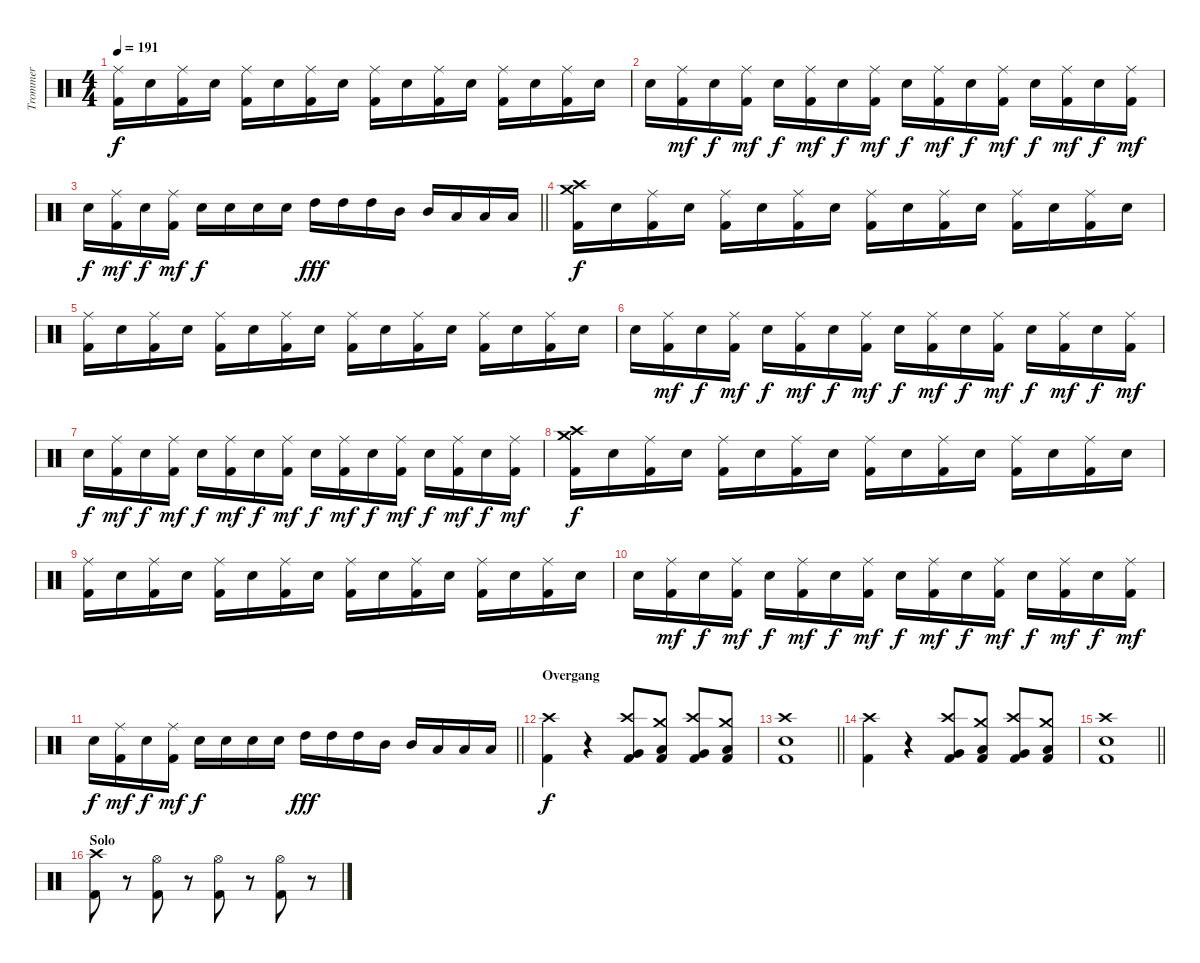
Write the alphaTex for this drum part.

\track ("Trommer" "Trommer") {instrument percussion}
\staff {score}
\articulation defaults
\ts (4 4)
\tempo 191
\clef neutral
\ks c
("Ride (middle)" "Kick (hit) 2").16{dy f} "Snare (hit) 2".16 ("Ride (middle)" "Kick (hit) 2").16 "Snare (hit) 2".16 ("Ride (middle)" "Kick (hit) 2").16 "Snare (hit) 2".16 ("Ride (middle)" "Kick (hit) 2").16 "Snare (hit) 2".16 ("Ride (middle)" "Kick (hit) 2").16 "Snare (hit) 2".16 ("Ride (middle)" "Kick (hit) 2").16 "Snare (hit) 2".16 ("Ride (middle)" "Kick (hit) 2").16 "Snare (hit) 2".16 ("Ride (middle)" "Kick (hit) 2").16 "Snare (hit) 2".16 |
"Snare (hit) 2".16 ("Ride (middle)" "Kick (hit) 2").16{dy mf} "Snare (hit) 2".16{dy f} ("Ride (middle)" "Kick (hit) 2").16{dy mf} "Snare (hit) 2".16{dy f} ("Ride (middle)" "Kick (hit) 2").16{dy mf} "Snare (hit) 2".16{dy f} ("Ride (middle)" "Kick (hit) 2").16{dy mf} "Snare (hit) 2".16{dy f} ("Ride (middle)" "Kick (hit) 2").16{dy mf} "Snare (hit) 2".16{dy f} ("Ride (middle)" "Kick (hit) 2").16{dy mf} "Snare (hit) 2".16{dy f} ("Ride (middle)" "Kick (hit) 2").16{dy mf} "Snare (hit) 2".16{dy f} ("Ride (middle)" "Kick (hit) 2").16{dy mf} |
\barLineRight lightlight "Snare (hit) 2".16{dy f}
("Ride (middle)" "Kick (hit) 2").16{dy mf} "Snare (hit) 2".16{dy f} ("Ride (middle)" "Kick (hit) 2").16{dy mf} "Snare (hit) 2".16{dy f} "Snare (hit) 2".16 "Snare (hit) 2".16 "Snare (hit) 2".16 "High Tom (hit)".16{dy fff} "High Tom (hit)".16 "High Tom (hit)".16 "Mid Tom (hit)".16 "Mid Tom (hit)".16 "Low Tom (hit)".16 "Low Tom (hit)".16 "Low Tom (hit)".16 |
("Crash medium (hit)" "Crash high (hit)" "Kick (hit) 2").16{dy f} "Snare (hit) 2".16 ("Ride (middle)" "Kick (hit) 2").16 "Snare (hit) 2".16 ("Ride (middle)" "Kick (hit) 2").16 "Snare (hit) 2".16 ("Ride (middle)" "Kick (hit) 2").16 "Snare (hit) 2".16 ("Ride (middle)" "Kick (hit) 2").16 "Snare (hit) 2".16 ("Ride (middle)" "Kick (hit) 2").16 "Snare (hit) 2".16 ("Ride (middle)" "Kick (hit) 2").16 "Snare (hit) 2".16 ("Ride (middle)" "Kick (hit) 2").16 "Snare (hit) 2".16 |
("Ride (middle)" "Kick (hit) 2").16 "Snare (hit) 2".16 ("Ride (middle)" "Kick (hit) 2").16 "Snare (hit) 2".16 ("Ride (middle)" "Kick (hit) 2").16 "Snare (hit) 2".16 ("Ride (middle)" "Kick (hit) 2").16 "Snare (hit) 2".16 ("Ride (middle)" "Kick (hit) 2").16 "Snare (hit) 2".16 ("Ride (middle)" "Kick (hit) 2").16 "Snare (hit) 2".16 ("Ride (middle)" "Kick (hit) 2").16 "Snare (hit) 2".16 ("Ride (middle)" "Kick (hit) 2").16 "Snare (hit) 2".16 |
"Snare (hit) 2".16 ("Ride (middle)" "Kick (hit) 2").16{dy mf} "Snare (hit) 2".16{dy f} ("Ride (middle)" "Kick (hit) 2").16{dy mf} "Snare (hit) 2".16{dy f} ("Ride (middle)" "Kick (hit) 2").16{dy mf} "Snare (hit) 2".16{dy f} ("Ride (middle)" "Kick (hit) 2").16{dy mf} "Snare (hit) 2".16{dy f} ("Ride (middle)" "Kick (hit) 2").16{dy mf} "Snare (hit) 2".16{dy f} ("Ride (middle)" "Kick (hit) 2").16{dy mf} "Snare (hit) 2".16{dy f} ("Ride (middle)" "Kick (hit) 2").16{dy mf} "Snare (hit) 2".16{dy f} ("Ride (middle)" "Kick (hit) 2").16{dy mf} |
"Snare (hit) 2".16{dy f} ("Ride (middle)" "Kick (hit) 2").16{dy mf} "Snare (hit) 2".16{dy f} ("Ride (middle)" "Kick (hit) 2").16{dy mf} "Snare (hit) 2".16{dy f} ("Ride (middle)" "Kick (hit) 2").16{dy mf} "Snare (hit) 2".16{dy f} ("Ride (middle)" "Kick (hit) 2").16{dy mf} "Snare (hit) 2".16{dy f} ("Ride (middle)" "Kick (hit) 2").16{dy mf} "Snare (hit) 2".16{dy f} ("Ride (middle)" "Kick (hit) 2").16{dy mf} "Snare (hit) 2".16{dy f} ("Ride (middle)" "Kick (hit) 2").16{dy mf} "Snare (hit) 2".16{dy f} ("Ride (middle)" "Kick (hit) 2").16{dy mf} |
("Crash medium (hit)" "Crash high (hit)" "Kick (hit) 2").16{dy f} "Snare (hit) 2".16 ("Ride (middle)" "Kick (hit) 2").16 "Snare (hit) 2".16 ("Ride (middle)" "Kick (hit) 2").16 "Snare (hit) 2".16 ("Ride (middle)" "Kick (hit) 2").16 "Snare (hit) 2".16 ("Ride (middle)" "Kick (hit) 2").16 "Snare (hit) 2".16 ("Ride (middle)" "Kick (hit) 2").16 "Snare (hit) 2".16 ("Ride (middle)" "Kick (hit) 2").16 "Snare (hit) 2".16 ("Ride (middle)" "Kick (hit) 2").16 "Snare (hit) 2".16 |
("Ride (middle)" "Kick (hit) 2").16 "Snare (hit) 2".16 ("Ride (middle)" "Kick (hit) 2").16 "Snare (hit) 2".16 ("Ride (middle)" "Kick (hit) 2").16 "Snare (hit) 2".16 ("Ride (middle)" "Kick (hit) 2").16 "Snare (hit) 2".16 ("Ride (middle)" "Kick (hit) 2").16 "Snare (hit) 2".16 ("Ride (middle)" "Kick (hit) 2").16 "Snare (hit) 2".16 ("Ride (middle)" "Kick (hit) 2").16 "Snare (hit) 2".16 ("Ride (middle)" "Kick (hit) 2").16 "Snare (hit) 2".16 |
"Snare (hit) 2".16 ("Ride (middle)" "Kick (hit) 2").16{dy mf} "Snare (hit) 2".16{dy f} ("Ride (middle)" "Kick (hit) 2").16{dy mf} "Snare (hit) 2".16{dy f} ("Ride (middle)" "Kick (hit) 2").16{dy mf} "Snare (hit) 2".16{dy f} ("Ride (middle)" "Kick (hit) 2").16{dy mf} "Snare (hit) 2".16{dy f} ("Ride (middle)" "Kick (hit) 2").16{dy mf} "Snare (hit) 2".16{dy f} ("Ride (middle)" "Kick (hit) 2").16{dy mf} "Snare (hit) 2".16{dy f} ("Ride (middle)" "Kick (hit) 2").16{dy mf} "Snare (hit) 2".16{dy f} ("Ride (middle)" "Kick (hit) 2").16{dy mf} |
\barLineRight lightlight "Snare (hit) 2".16{dy f}
("Ride (middle)" "Kick (hit) 2").16{dy mf} "Snare (hit) 2".16{dy f} ("Ride (middle)" "Kick (hit) 2").16{dy mf} "Snare (hit) 2".16{dy f} "Snare (hit) 2".16 "Snare (hit) 2".16 "Snare (hit) 2".16 "High Tom (hit)".16{dy fff} "High Tom (hit)".16 "High Tom (hit)".16 "Mid Tom (hit)".16 "Mid Tom (hit)".16 "Low Tom (hit)".16 "Low Tom (hit)".16 "Low Tom (hit)".16 |
\section ("" "Overgang")
("Crash high (hit)" "Kick (hit) 2").4{dy f} r.4 ("Crash high (hit)" "Very Low Tom (hit)" "Kick (hit) 2").8 ("Crash medium (hit)" "Low Floor Tom (hit)" "Kick (hit) 2").8 ("Crash high (hit)" "Very Low Tom (hit)" "Kick (hit) 2").8 ("Crash medium (hit)" "Low Floor Tom (hit)" "Kick (hit) 2").8 |
\barLineRight lightlight
("Crash high (hit)" "Snare (hit) 2" "Kick (hit) 2").1 |
("Crash high (hit)" "Kick (hit) 2").4 r.4 ("Crash high (hit)" "Very Low Tom (hit)" "Kick (hit) 2").8 ("Crash medium (hit)" "Low Floor Tom (hit)" "Kick (hit) 2").8 ("Crash high (hit)" "Very Low Tom (hit)" "Kick (hit) 2").8 ("Crash medium (hit)" "Low Floor Tom (hit)" "Kick (hit) 2").8 |
\barLineRight lightlight
("Crash high (hit)" "Snare (hit) 2" "Kick (hit) 2").1 |
\section ("" "Solo")
("Crash high (hit)" "Kick (hit) 2").8 r.8 ("Hi-Hat (open)" "Kick (hit) 2").8 r.8 ("Hi-Hat (open)" "Kick (hit) 2").8 r.8 ("Hi-Hat (open)" "Kick (hit) 2").8 r.8
